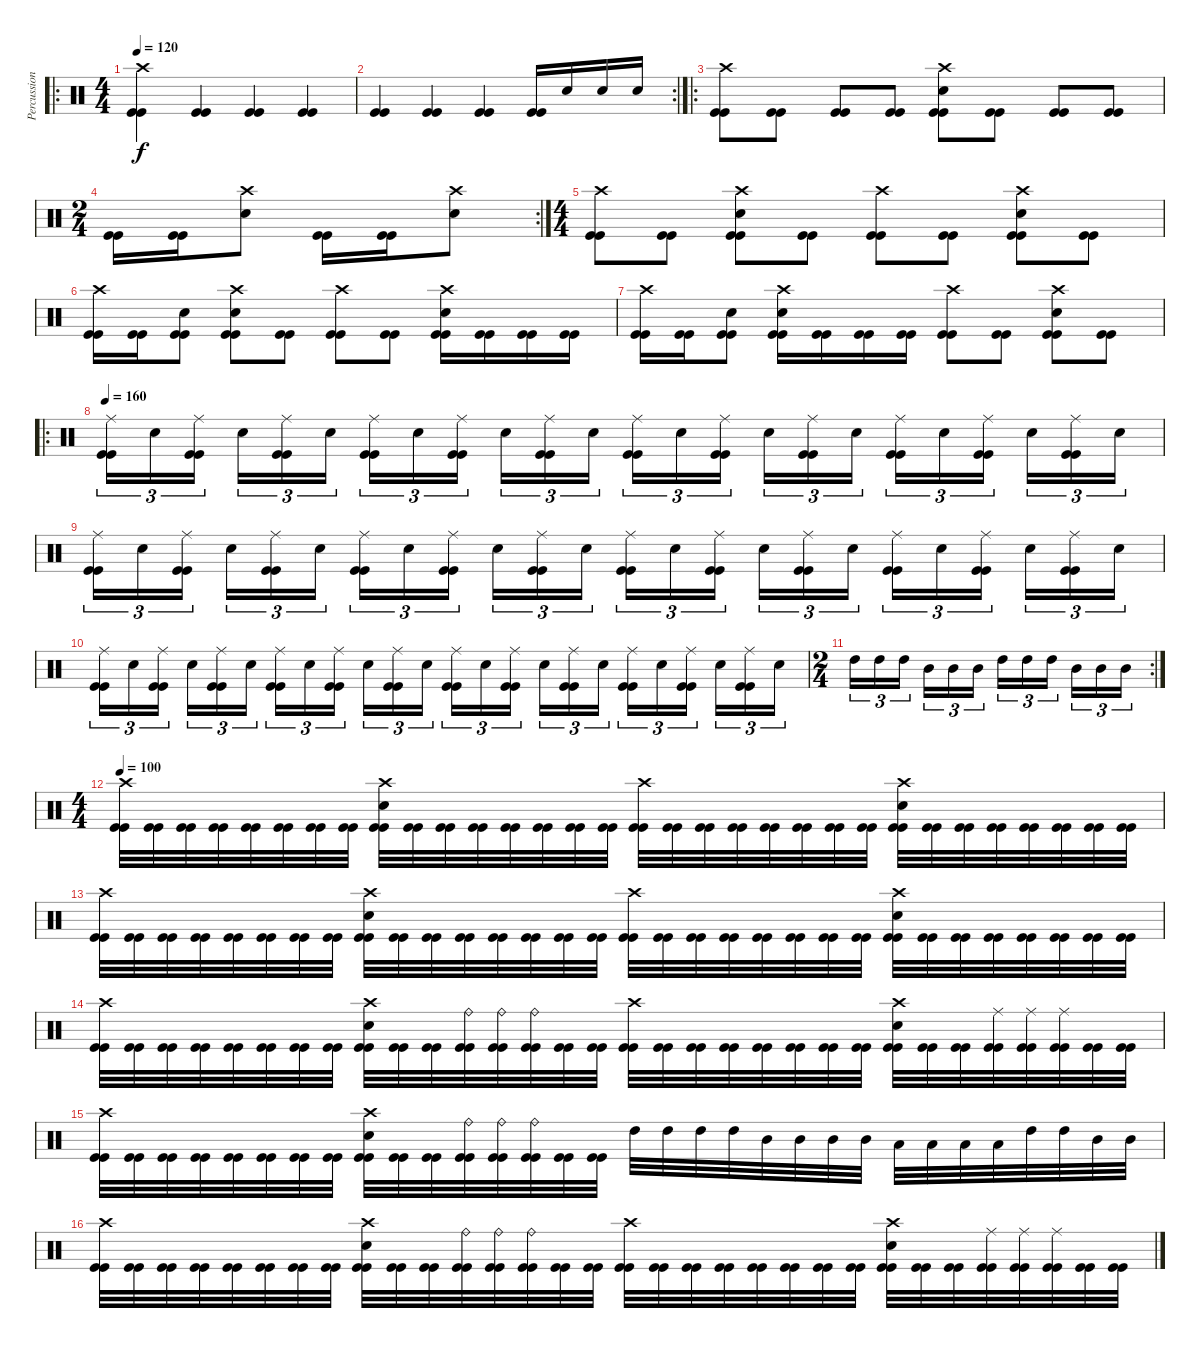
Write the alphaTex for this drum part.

\track ("Percussion" "Percussion") {instrument percussion}
\staff {score}
\articulation defaults
\ro
\ts (4 4)
\tempo 120
\clef neutral
\ks c
("Crash high (hit)" "Kick (hit)" "Kick (hit)").4{dy f} ("Kick (hit)" "Kick (hit)").4 ("Kick (hit)" "Kick (hit)").4 ("Kick (hit)" "Kick (hit)").4 |
\rc 2
("Kick (hit)" "Kick (hit)").4 ("Kick (hit)" "Kick (hit)").4 ("Kick (hit)" "Kick (hit)").4 ("Kick (hit)" "Kick (hit)").16 "Snare (hit) 2".16 "Snare (hit) 2".16 "Snare (hit) 2".16 |
\ro
("Crash high (hit)" "Kick (hit)" "Kick (hit)").8 ("Kick (hit)" "Kick (hit)").8 ("Kick (hit)" "Kick (hit)").8 ("Kick (hit)" "Kick (hit)").8 ("Crash high (hit)" "Snare (hit) 2" "Kick (hit)" "Kick (hit)").8 ("Kick (hit)" "Kick (hit)").8 ("Kick (hit)" "Kick (hit)").8 ("Kick (hit)" "Kick (hit)").8 |
\rc 2
\ts (2 4)
("Kick (hit)" "Kick (hit)").16 ("Kick (hit)" "Kick (hit)").16 ("Crash high (hit)" "Snare (hit) 2").8 ("Kick (hit)" "Kick (hit)").16 ("Kick (hit)" "Kick (hit)").16 ("Crash high (hit)" "Snare (hit) 2").8 |
\ts (4 4)
("Crash high (hit)" "Kick (hit)" "Kick (hit)").8 ("Kick (hit)" "Kick (hit)").8 ("Crash high (hit)" "Snare (hit) 2" "Kick (hit)" "Kick (hit)").8 ("Kick (hit)" "Kick (hit)").8 ("Crash high (hit)" "Kick (hit)" "Kick (hit)").8 ("Kick (hit)" "Kick (hit)").8 ("Crash high (hit)" "Snare (hit) 2" "Kick (hit)" "Kick (hit)").8 ("Kick (hit)" "Kick (hit)").8 |
("Crash high (hit)" "Kick (hit)" "Kick (hit)").16 ("Kick (hit)" "Kick (hit)").16 ("Snare (hit) 2" "Kick (hit)" "Kick (hit)").8 ("Crash high (hit)" "Snare (hit) 2" "Kick (hit)" "Kick (hit)").8 ("Kick (hit)" "Kick (hit)").8 ("Crash high (hit)" "Kick (hit)" "Kick (hit)").8 ("Kick (hit)" "Kick (hit)").8 ("Crash high (hit)" "Snare (hit) 2" "Kick (hit)" "Kick (hit)").16 ("Kick (hit)" "Kick (hit)").16 ("Kick (hit)" "Kick (hit)").16 ("Kick (hit)" "Kick (hit)").16 |
("Crash high (hit)" "Kick (hit)" "Kick (hit)").16 ("Kick (hit)" "Kick (hit)").16 ("Snare (hit) 2" "Kick (hit)" "Kick (hit)").8 ("Crash high (hit)" "Snare (hit) 2" "Kick (hit)" "Kick (hit)").16 ("Kick (hit)" "Kick (hit)").16 ("Kick (hit)" "Kick (hit)").16 ("Kick (hit)" "Kick (hit)").16 ("Crash high (hit)" "Kick (hit)" "Kick (hit)").8 ("Kick (hit)" "Kick (hit)").8 ("Crash high (hit)" "Snare (hit) 2" "Kick (hit)" "Kick (hit)").8 ("Kick (hit)" "Kick (hit)").8 |
\ro
\tempo 160
("Ride (middle)" "Kick (hit)" "Kick (hit)").16{tu (3 2)} "Snare (hit) 2".16{tu (3 2)} ("Ride (middle)" "Kick (hit)" "Kick (hit)").16{tu (3 2)} "Snare (hit) 2".16{tu (3 2)} ("Ride (middle)" "Kick (hit)" "Kick (hit)").16{tu (3 2)} "Snare (hit) 2".16{tu (3 2)} ("Ride (middle)" "Kick (hit)" "Kick (hit)").16{tu (3 2)} "Snare (hit) 2".16{tu (3 2)} ("Ride (middle)" "Kick (hit)" "Kick (hit)").16{tu (3 2)} "Snare (hit) 2".16{tu (3 2)} ("Ride (middle)" "Kick (hit)" "Kick (hit)").16{tu (3 2)} "Snare (hit) 2".16{tu (3 2)} ("Ride (middle)" "Kick (hit)" "Kick (hit)").16{tu (3 2)} "Snare (hit) 2".16{tu (3 2)} ("Ride (middle)" "Kick (hit)" "Kick (hit)").16{tu (3 2)} "Snare (hit) 2".16{tu (3 2)} ("Ride (middle)" "Kick (hit)" "Kick (hit)").16{tu (3 2)} "Snare (hit) 2".16{tu (3 2)} ("Ride (middle)" "Kick (hit)" "Kick (hit)").16{tu (3 2)} "Snare (hit) 2".16{tu (3 2)} ("Ride (middle)" "Kick (hit)" "Kick (hit)").16{tu (3 2)} "Snare (hit) 2".16{tu (3 2)} ("Ride (middle)" "Kick (hit)" "Kick (hit)").16{tu (3 2)} "Snare (hit) 2".16{tu (3 2)} |
("Ride (middle)" "Kick (hit)" "Kick (hit)").16{tu (3 2)} "Snare (hit) 2".16{tu (3 2)} ("Ride (middle)" "Kick (hit)" "Kick (hit)").16{tu (3 2)} "Snare (hit) 2".16{tu (3 2)} ("Ride (middle)" "Kick (hit)" "Kick (hit)").16{tu (3 2)} "Snare (hit) 2".16{tu (3 2)} ("Ride (middle)" "Kick (hit)" "Kick (hit)").16{tu (3 2)} "Snare (hit) 2".16{tu (3 2)} ("Ride (middle)" "Kick (hit)" "Kick (hit)").16{tu (3 2)} "Snare (hit) 2".16{tu (3 2)} ("Ride (middle)" "Kick (hit)" "Kick (hit)").16{tu (3 2)} "Snare (hit) 2".16{tu (3 2)} ("Ride (middle)" "Kick (hit)" "Kick (hit)").16{tu (3 2)} "Snare (hit) 2".16{tu (3 2)} ("Ride (middle)" "Kick (hit)" "Kick (hit)").16{tu (3 2)} "Snare (hit) 2".16{tu (3 2)} ("Ride (middle)" "Kick (hit)" "Kick (hit)").16{tu (3 2)} "Snare (hit) 2".16{tu (3 2)} ("Ride (middle)" "Kick (hit)" "Kick (hit)").16{tu (3 2)} "Snare (hit) 2".16{tu (3 2)} ("Ride (middle)" "Kick (hit)" "Kick (hit)").16{tu (3 2)} "Snare (hit) 2".16{tu (3 2)} ("Ride (middle)" "Kick (hit)" "Kick (hit)").16{tu (3 2)} "Snare (hit) 2".16{tu (3 2)} |
("Ride (middle)" "Kick (hit)" "Kick (hit)").16{tu (3 2)} "Snare (hit) 2".16{tu (3 2)} ("Ride (middle)" "Kick (hit)" "Kick (hit)").16{tu (3 2)} "Snare (hit) 2".16{tu (3 2)} ("Ride (middle)" "Kick (hit)" "Kick (hit)").16{tu (3 2)} "Snare (hit) 2".16{tu (3 2)} ("Ride (middle)" "Kick (hit)" "Kick (hit)").16{tu (3 2)} "Snare (hit) 2".16{tu (3 2)} ("Ride (middle)" "Kick (hit)" "Kick (hit)").16{tu (3 2)} "Snare (hit) 2".16{tu (3 2)} ("Ride (middle)" "Kick (hit)" "Kick (hit)").16{tu (3 2)} "Snare (hit) 2".16{tu (3 2)} ("Ride (middle)" "Kick (hit)" "Kick (hit)").16{tu (3 2)} "Snare (hit) 2".16{tu (3 2)} ("Ride (middle)" "Kick (hit)" "Kick (hit)").16{tu (3 2)} "Snare (hit) 2".16{tu (3 2)} ("Ride (middle)" "Kick (hit)" "Kick (hit)").16{tu (3 2)} "Snare (hit) 2".16{tu (3 2)} ("Ride (middle)" "Kick (hit)" "Kick (hit)").16{tu (3 2)} "Snare (hit) 2".16{tu (3 2)} ("Ride (middle)" "Kick (hit)" "Kick (hit)").16{tu (3 2)} "Snare (hit) 2".16{tu (3 2)} ("Ride (middle)" "Kick (hit)" "Kick (hit)").16{tu (3 2)} "Snare (hit) 2".16{tu (3 2)} |
\rc 2
\ts (2 4)
"High Tom (hit)".16{tu (3 2)} "High Tom (hit)".16{tu (3 2)} "High Tom (hit)".16{tu (3 2)} "Mid Tom (hit)".16{tu (3 2)} "Mid Tom (hit)".16{tu (3 2)} "Mid Tom (hit)".16{tu (3 2)} "High Tom (hit)".16{tu (3 2)} "High Tom (hit)".16{tu (3 2)} "High Tom (hit)".16{tu (3 2)} "Mid Tom (hit)".16{tu (3 2)} "Mid Tom (hit)".16{tu (3 2)} "Mid Tom (hit)".16{tu (3 2)} |
\ts (4 4)
\tempo 100
("Crash high (hit)" "Kick (hit)" "Kick (hit)").32 ("Kick (hit)" "Kick (hit)").32 ("Kick (hit)" "Kick (hit)").32 ("Kick (hit)" "Kick (hit)").32 ("Kick (hit)" "Kick (hit)").32 ("Kick (hit)" "Kick (hit)").32 ("Kick (hit)" "Kick (hit)").32 ("Kick (hit)" "Kick (hit)").32 ("Crash high (hit)" "Snare (hit) 2" "Kick (hit)" "Kick (hit)").32 ("Kick (hit)" "Kick (hit)").32 ("Kick (hit)" "Kick (hit)").32 ("Kick (hit)" "Kick (hit)").32 ("Kick (hit)" "Kick (hit)").32 ("Kick (hit)" "Kick (hit)").32 ("Kick (hit)" "Kick (hit)").32 ("Kick (hit)" "Kick (hit)").32 ("Crash high (hit)" "Kick (hit)" "Kick (hit)").32 ("Kick (hit)" "Kick (hit)").32 ("Kick (hit)" "Kick (hit)").32 ("Kick (hit)" "Kick (hit)").32 ("Kick (hit)" "Kick (hit)").32 ("Kick (hit)" "Kick (hit)").32 ("Kick (hit)" "Kick (hit)").32 ("Kick (hit)" "Kick (hit)").32 ("Crash high (hit)" "Snare (hit) 2" "Kick (hit)" "Kick (hit)").32 ("Kick (hit)" "Kick (hit)").32 ("Kick (hit)" "Kick (hit)").32 ("Kick (hit)" "Kick (hit)").32 ("Kick (hit)" "Kick (hit)").32 ("Kick (hit)" "Kick (hit)").32 ("Kick (hit)" "Kick (hit)").32 ("Kick (hit)" "Kick (hit)").32 |
("Crash high (hit)" "Kick (hit)" "Kick (hit)").32 ("Kick (hit)" "Kick (hit)").32 ("Kick (hit)" "Kick (hit)").32 ("Kick (hit)" "Kick (hit)").32 ("Kick (hit)" "Kick (hit)").32 ("Kick (hit)" "Kick (hit)").32 ("Kick (hit)" "Kick (hit)").32 ("Kick (hit)" "Kick (hit)").32 ("Crash high (hit)" "Snare (hit) 2" "Kick (hit)" "Kick (hit)").32 ("Kick (hit)" "Kick (hit)").32 ("Kick (hit)" "Kick (hit)").32 ("Kick (hit)" "Kick (hit)").32 ("Kick (hit)" "Kick (hit)").32 ("Kick (hit)" "Kick (hit)").32 ("Kick (hit)" "Kick (hit)").32 ("Kick (hit)" "Kick (hit)").32 ("Crash high (hit)" "Kick (hit)" "Kick (hit)").32 ("Kick (hit)" "Kick (hit)").32 ("Kick (hit)" "Kick (hit)").32 ("Kick (hit)" "Kick (hit)").32 ("Kick (hit)" "Kick (hit)").32 ("Kick (hit)" "Kick (hit)").32 ("Kick (hit)" "Kick (hit)").32 ("Kick (hit)" "Kick (hit)").32 ("Crash high (hit)" "Snare (hit) 2" "Kick (hit)" "Kick (hit)").32 ("Kick (hit)" "Kick (hit)").32 ("Kick (hit)" "Kick (hit)").32 ("Kick (hit)" "Kick (hit)").32 ("Kick (hit)" "Kick (hit)").32 ("Kick (hit)" "Kick (hit)").32 ("Kick (hit)" "Kick (hit)").32 ("Kick (hit)" "Kick (hit)").32 |
("Crash high (hit)" "Kick (hit)" "Kick (hit)").32 ("Kick (hit)" "Kick (hit)").32 ("Kick (hit)" "Kick (hit)").32 ("Kick (hit)" "Kick (hit)").32 ("Kick (hit)" "Kick (hit)").32 ("Kick (hit)" "Kick (hit)").32 ("Kick (hit)" "Kick (hit)").32 ("Kick (hit)" "Kick (hit)").32 ("Crash high (hit)" "Snare (hit) 2" "Kick (hit)" "Kick (hit)").32 ("Kick (hit)" "Kick (hit)").32 ("Kick (hit)" "Kick (hit)").32 ("Ride (bell)" "Kick (hit)" "Kick (hit)").32 ("Ride (bell)" "Kick (hit)" "Kick (hit)").32 ("Ride (bell)" "Kick (hit)" "Kick (hit)").32 ("Kick (hit)" "Kick (hit)").32 ("Kick (hit)" "Kick (hit)").32 ("Crash high (hit)" "Kick (hit)" "Kick (hit)").32 ("Kick (hit)" "Kick (hit)").32 ("Kick (hit)" "Kick (hit)").32 ("Kick (hit)" "Kick (hit)").32 ("Kick (hit)" "Kick (hit)").32 ("Kick (hit)" "Kick (hit)").32 ("Kick (hit)" "Kick (hit)").32 ("Kick (hit)" "Kick (hit)").32 ("Crash high (hit)" "Snare (hit) 2" "Kick (hit)" "Kick (hit)").32 ("Kick (hit)" "Kick (hit)").32 ("Kick (hit)" "Kick (hit)").32 ("Ride (middle)" "Kick (hit)" "Kick (hit)").32 ("Ride (middle)" "Kick (hit)" "Kick (hit)").32 ("Ride (middle)" "Kick (hit)" "Kick (hit)").32 ("Kick (hit)" "Kick (hit)").32 ("Kick (hit)" "Kick (hit)").32 |
("Crash high (hit)" "Kick (hit)" "Kick (hit)").32 ("Kick (hit)" "Kick (hit)").32 ("Kick (hit)" "Kick (hit)").32 ("Kick (hit)" "Kick (hit)").32 ("Kick (hit)" "Kick (hit)").32 ("Kick (hit)" "Kick (hit)").32 ("Kick (hit)" "Kick (hit)").32 ("Kick (hit)" "Kick (hit)").32 ("Crash high (hit)" "Snare (hit) 2" "Kick (hit)" "Kick (hit)").32 ("Kick (hit)" "Kick (hit)").32 ("Kick (hit)" "Kick (hit)").32 ("Ride (bell)" "Kick (hit)" "Kick (hit)").32 ("Ride (bell)" "Kick (hit)" "Kick (hit)").32 ("Ride (bell)" "Kick (hit)" "Kick (hit)").32 ("Kick (hit)" "Kick (hit)").32 ("Kick (hit)" "Kick (hit)").32 "High Tom (hit)".32 "High Tom (hit)".32 "High Tom (hit)".32 "High Tom (hit)".32 "Mid Tom (hit)".32 "Mid Tom (hit)".32 "Mid Tom (hit)".32 "Mid Tom (hit)".32 "Low Tom (hit)".32 "Low Tom (hit)".32 "Low Tom (hit)".32 "Low Tom (hit)".32 "High Tom (hit)".32 "High Tom (hit)".32 "Mid Tom (hit)".32 "Mid Tom (hit)".32 |
("Crash high (hit)" "Kick (hit)" "Kick (hit)").32 ("Kick (hit)" "Kick (hit)").32 ("Kick (hit)" "Kick (hit)").32 ("Kick (hit)" "Kick (hit)").32 ("Kick (hit)" "Kick (hit)").32 ("Kick (hit)" "Kick (hit)").32 ("Kick (hit)" "Kick (hit)").32 ("Kick (hit)" "Kick (hit)").32 ("Crash high (hit)" "Snare (hit) 2" "Kick (hit)" "Kick (hit)").32 ("Kick (hit)" "Kick (hit)").32 ("Kick (hit)" "Kick (hit)").32 ("Ride (bell)" "Kick (hit)" "Kick (hit)").32 ("Ride (bell)" "Kick (hit)" "Kick (hit)").32 ("Ride (bell)" "Kick (hit)" "Kick (hit)").32 ("Kick (hit)" "Kick (hit)").32 ("Kick (hit)" "Kick (hit)").32 ("Crash high (hit)" "Kick (hit)" "Kick (hit)").32 ("Kick (hit)" "Kick (hit)").32 ("Kick (hit)" "Kick (hit)").32 ("Kick (hit)" "Kick (hit)").32 ("Kick (hit)" "Kick (hit)").32 ("Kick (hit)" "Kick (hit)").32 ("Kick (hit)" "Kick (hit)").32 ("Kick (hit)" "Kick (hit)").32 ("Crash high (hit)" "Snare (hit) 2" "Kick (hit)" "Kick (hit)").32 ("Kick (hit)" "Kick (hit)").32 ("Kick (hit)" "Kick (hit)").32 ("Ride (middle)" "Kick (hit)" "Kick (hit)").32 ("Ride (middle)" "Kick (hit)" "Kick (hit)").32 ("Ride (middle)" "Kick (hit)" "Kick (hit)").32 ("Kick (hit)" "Kick (hit)").32 ("Kick (hit)" "Kick (hit)").32
